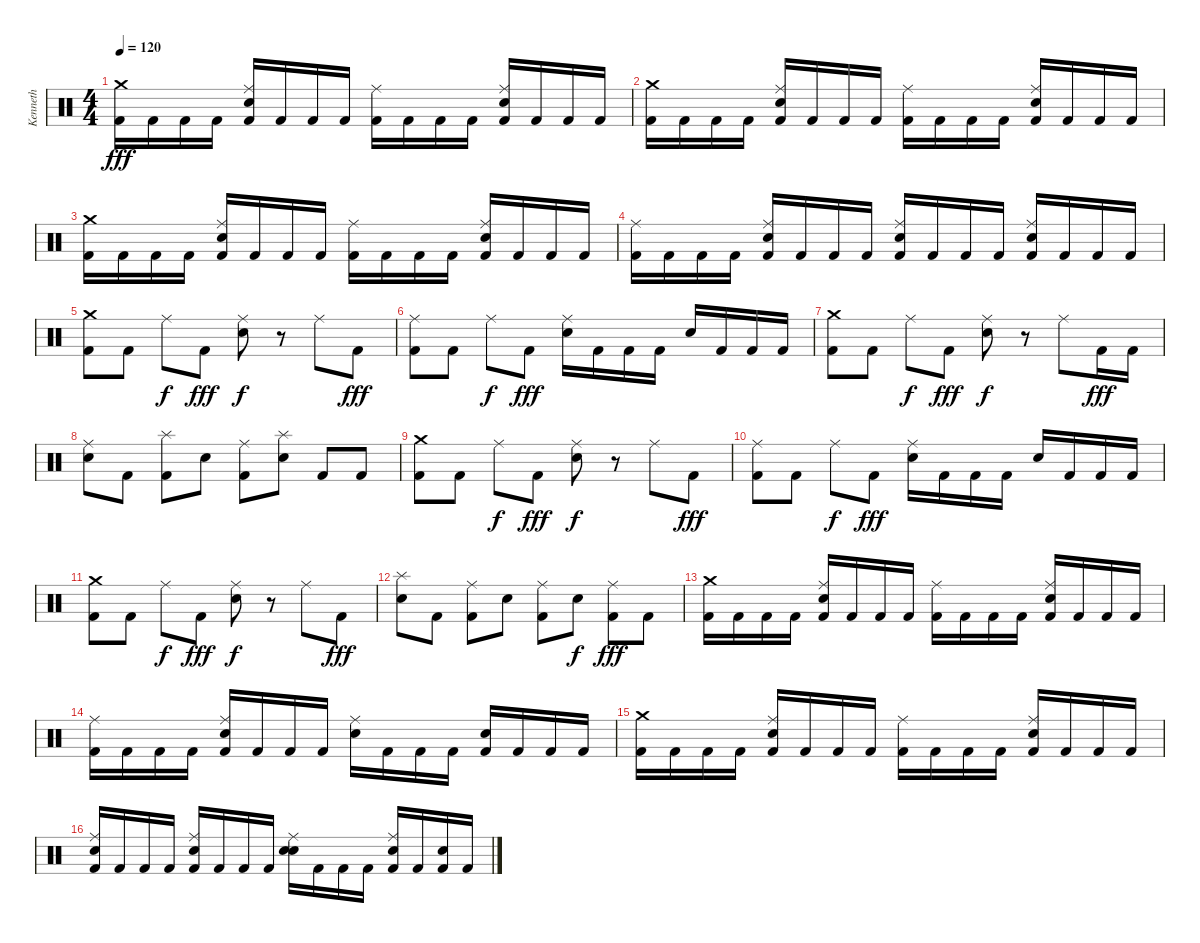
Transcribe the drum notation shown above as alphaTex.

\track ("Kenneth" "Kenneth") {instrument percussion}
\staff {score}
\articulation defaults
\ts (4 4)
\tempo 120
\clef neutral
\ks c
("Crash medium (hit)" "Kick (hit) 2").16{dy fff} "Kick (hit) 2".16 "Kick (hit) 2".16 "Kick (hit) 2".16 ("Ride (middle)" "Electric Snare (hit)" "Kick (hit) 2").16 "Kick (hit) 2".16 "Kick (hit) 2".16 "Kick (hit) 2".16 ("Ride (middle)" "Kick (hit) 2").16 "Kick (hit) 2".16 "Kick (hit) 2".16 "Kick (hit) 2".16 ("Ride (middle)" "Electric Snare (hit)" "Kick (hit) 2").16 "Kick (hit) 2".16 "Kick (hit) 2".16 "Kick (hit) 2".16 |
("Crash medium (hit)" "Kick (hit) 2").16 "Kick (hit) 2".16 "Kick (hit) 2".16 "Kick (hit) 2".16 ("Ride (middle)" "Electric Snare (hit)" "Kick (hit) 2").16 "Kick (hit) 2".16 "Kick (hit) 2".16 "Kick (hit) 2".16 ("Ride (middle)" "Kick (hit) 2").16 "Kick (hit) 2".16 "Kick (hit) 2".16 "Kick (hit) 2".16 ("Ride (middle)" "Electric Snare (hit)" "Kick (hit) 2").16 "Kick (hit) 2".16 "Kick (hit) 2".16 "Kick (hit) 2".16 |
("Crash medium (hit)" "Kick (hit) 2").16 "Kick (hit) 2".16 "Kick (hit) 2".16 "Kick (hit) 2".16 ("Ride (middle)" "Electric Snare (hit)" "Kick (hit) 2").16 "Kick (hit) 2".16 "Kick (hit) 2".16 "Kick (hit) 2".16 ("Ride (middle)" "Kick (hit) 2").16 "Kick (hit) 2".16 "Kick (hit) 2".16 "Kick (hit) 2".16 ("Ride (middle)" "Electric Snare (hit)" "Kick (hit) 2").16 "Kick (hit) 2".16 "Kick (hit) 2".16 "Kick (hit) 2".16 |
("Ride (middle)" "Kick (hit) 2").16 "Kick (hit) 2".16 "Kick (hit) 2".16 "Kick (hit) 2".16 ("Ride (middle)" "Electric Snare (hit)" "Kick (hit) 2").16 "Kick (hit) 2".16 "Kick (hit) 2".16 "Kick (hit) 2".16 ("Ride (middle)" "Electric Snare (hit)" "Kick (hit) 2").16 "Kick (hit) 2".16 "Kick (hit) 2".16 "Kick (hit) 2".16 ("Ride (middle)" "Electric Snare (hit)" "Kick (hit) 2").16 "Kick (hit) 2".16 "Kick (hit) 2".16 "Kick (hit) 2".16 |
("Crash medium (hit)" "Kick (hit) 2").8 "Kick (hit) 2".8 "Ride (middle)".8{dy f} "Kick (hit) 2".8{dy fff} ("Ride (middle)" "Electric Snare (hit)").8{dy f} r.8 "Ride (middle)".8 "Kick (hit) 2".8{dy fff} |
("Ride (middle)" "Kick (hit) 2").8 "Kick (hit) 2".8 "Ride (middle)".8{dy f} "Kick (hit) 2".8{dy fff} ("Ride (middle)" "Electric Snare (hit)").16 "Kick (hit) 2".16 "Kick (hit) 2".16 "Kick (hit) 2".16 "Electric Snare (hit)".16 "Kick (hit) 2".16 "Kick (hit) 2".16 "Kick (hit) 2".16 |
("Crash medium (hit)" "Kick (hit) 2").8 "Kick (hit) 2".8 "Ride (middle)".8{dy f} "Kick (hit) 2".8{dy fff} ("Ride (middle)" "Electric Snare (hit)").8{dy f} r.8 "Ride (middle)".8 "Kick (hit) 2".16{dy fff} "Kick (hit) 2".16 |
("Ride (middle)" "Electric Snare (hit)").8 "Kick (hit) 2".8 ("Splash (hit)" "Kick (hit) 2").8 "Electric Snare (hit)".8 ("Ride (middle)" "Kick (hit) 2").8 ("Splash (hit)" "Electric Snare (hit)").8 "Kick (hit) 2".8 "Kick (hit) 2".8 |
("Crash medium (hit)" "Kick (hit) 2").8 "Kick (hit) 2".8 "Ride (middle)".8{dy f} "Kick (hit) 2".8{dy fff} ("Ride (middle)" "Electric Snare (hit)").8{dy f} r.8 "Ride (middle)".8 "Kick (hit) 2".8{dy fff} |
("Ride (middle)" "Kick (hit) 2").8 "Kick (hit) 2".8 "Ride (middle)".8{dy f} "Kick (hit) 2".8{dy fff} ("Ride (middle)" "Electric Snare (hit)").16 "Kick (hit) 2".16 "Kick (hit) 2".16 "Kick (hit) 2".16 "Electric Snare (hit)".16 "Kick (hit) 2".16 "Kick (hit) 2".16 "Kick (hit) 2".16 |
("Crash medium (hit)" "Kick (hit) 2").8 "Kick (hit) 2".8 "Ride (middle)".8{dy f} "Kick (hit) 2".8{dy fff} ("Ride (middle)" "Electric Snare (hit)").8{dy f} r.8 "Ride (middle)".8 "Kick (hit) 2".8{dy fff} |
("Splash (hit)" "Electric Snare (hit)").8 "Kick (hit) 2".8 ("Ride (middle)" "Kick (hit) 2").8 "Electric Snare (hit)".8 ("Ride (middle)" "Kick (hit) 2").8 "Electric Snare (hit)".8{dy f} ("Ride (middle)" "Kick (hit) 2").8{dy fff} "Kick (hit) 2".8 |
("Crash medium (hit)" "Kick (hit) 2").16 "Kick (hit) 2".16 "Kick (hit) 2".16 "Kick (hit) 2".16 ("Ride (middle)" "Electric Snare (hit)" "Kick (hit) 2").16 "Kick (hit) 2".16 "Kick (hit) 2".16 "Kick (hit) 2".16 ("Ride (middle)" "Kick (hit) 2").16 "Kick (hit) 2".16 "Kick (hit) 2".16 "Kick (hit) 2".16 ("Ride (middle)" "Electric Snare (hit)" "Kick (hit) 2").16 "Kick (hit) 2".16 "Kick (hit) 2".16 "Kick (hit) 2".16 |
("Ride (middle)" "Kick (hit) 2").16 "Kick (hit) 2".16 "Kick (hit) 2".16 "Kick (hit) 2".16 ("Ride (middle)" "Electric Snare (hit)" "Kick (hit) 2").16 "Kick (hit) 2".16 "Kick (hit) 2".16 "Kick (hit) 2".16 ("Ride (middle)" "Electric Snare (hit)").16 "Kick (hit) 2".16 "Kick (hit) 2".16 "Kick (hit) 2".16 ("Electric Snare (hit)" "Kick (hit) 2").16 "Kick (hit) 2".16 "Kick (hit) 2".16 "Kick (hit) 2".16 |
("Crash medium (hit)" "Kick (hit) 2").16 "Kick (hit) 2".16 "Kick (hit) 2".16 "Kick (hit) 2".16 ("Ride (middle)" "Electric Snare (hit)" "Kick (hit) 2").16 "Kick (hit) 2".16 "Kick (hit) 2".16 "Kick (hit) 2".16 ("Ride (middle)" "Kick (hit) 2").16 "Kick (hit) 2".16 "Kick (hit) 2".16 "Kick (hit) 2".16 ("Ride (middle)" "Electric Snare (hit)" "Kick (hit) 2").16 "Kick (hit) 2".16 "Kick (hit) 2".16 "Kick (hit) 2".16 |
("Ride (middle)" "Electric Snare (hit)" "Kick (hit) 2").16 "Kick (hit) 2".16 "Kick (hit) 2".16 "Kick (hit) 2".16 ("Ride (middle)" "Electric Snare (hit)" "Kick (hit) 2").16 "Kick (hit) 2".16 "Kick (hit) 2".16 "Kick (hit) 2".16 ("Ride (middle)" "Electric Snare (hit)" "Electric Snare (hit)").16 "Kick (hit) 2".16 "Kick (hit) 2".16 "Kick (hit) 2".16 ("Ride (middle)" "Electric Snare (hit)" "Kick (hit) 2").16 "Kick (hit) 2".16 ("Electric Snare (hit)" "Kick (hit) 2").16 "Kick (hit) 2".16
